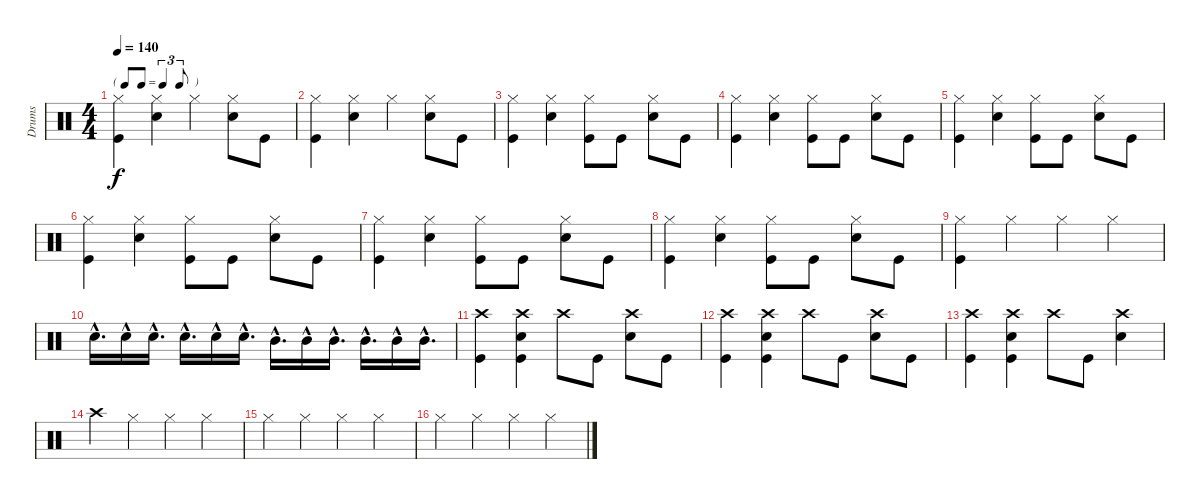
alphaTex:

\track ("Drums" "Drums") {instrument percussion}
\staff {score}
\articulation defaults
\ts (4 4)
\tf triplet8th
\tempo 140
\clef neutral
\ks c
("Kick (hit)" "Hi-Hat (closed)").4{dy f} ("Hi-Hat (closed)" "Snare (hit) 2").4 "Hi-Hat (closed)".4 ("Hi-Hat (closed)" "Snare (hit) 2").8 "Kick (hit)".8 |
("Kick (hit)" "Hi-Hat (closed)").4 ("Hi-Hat (closed)" "Snare (hit) 2").4 "Hi-Hat (closed)".4 ("Hi-Hat (closed)" "Snare (hit) 2").8 "Kick (hit)".8 |
("Hi-Hat (closed)" "Kick (hit)").4 ("Hi-Hat (closed)" "Snare (hit) 2").4 ("Kick (hit)" "Hi-Hat (closed)").8 "Kick (hit)".8 ("Hi-Hat (closed)" "Snare (hit) 2").8 "Kick (hit)".8 |
("Hi-Hat (closed)" "Kick (hit)").4 ("Hi-Hat (closed)" "Snare (hit) 2").4 ("Kick (hit)" "Hi-Hat (closed)").8 "Kick (hit)".8 ("Hi-Hat (closed)" "Snare (hit) 2").8 "Kick (hit)".8 |
("Hi-Hat (closed)" "Kick (hit)").4 ("Hi-Hat (closed)" "Snare (hit) 2").4 ("Kick (hit)" "Hi-Hat (closed)").8 "Kick (hit)".8 ("Hi-Hat (closed)" "Snare (hit) 2").8 "Kick (hit)".8 |
("Hi-Hat (closed)" "Kick (hit)").4 ("Hi-Hat (closed)" "Snare (hit) 2").4 ("Kick (hit)" "Hi-Hat (closed)").8 "Kick (hit)".8 ("Hi-Hat (closed)" "Snare (hit) 2").8 "Kick (hit)".8 |
("Hi-Hat (closed)" "Kick (hit)").4 ("Hi-Hat (closed)" "Snare (hit) 2").4 ("Kick (hit)" "Hi-Hat (closed)").8 "Kick (hit)".8 ("Hi-Hat (closed)" "Snare (hit) 2").8 "Kick (hit)".8 |
("Hi-Hat (closed)" "Kick (hit)").4 ("Hi-Hat (closed)" "Snare (hit) 2").4 ("Kick (hit)" "Hi-Hat (closed)").8 "Kick (hit)".8 ("Hi-Hat (closed)" "Snare (hit) 2").8 "Kick (hit)".8 |
("Hi-Hat (closed)" "Kick (hit)").4 "Hi-Hat (closed)".4 "Hi-Hat (closed)".4 "Hi-Hat (closed)".4 |
"Snare (hit) 2"{hac}.16{d} "Snare (hit) 2"{hac}.16 "Snare (hit) 2"{hac}.16{d} "Snare (hit) 2"{hac}.16{d} "Snare (hit) 2"{hac}.16 "Snare (hit) 2"{hac}.16{d} "Mid Tom (hit)"{hac}.16{d} "Mid Tom (hit)"{hac}.16 "Mid Tom (hit)"{hac}.16{d} "Mid Tom (hit)"{hac}.16{d} "Mid Tom (hit)"{hac}.16 "Mid Tom (hit)"{hac}.16{d} |
("Crash high (hit)" "Kick (hit)").4 ("Crash high (hit)" "Snare (hit) 2" "Kick (hit)").4 "Crash high (hit)".8 "Kick (hit)".8 ("Crash high (hit)" "Snare (hit) 2").8 "Kick (hit)".8 |
("Kick (hit)" "Crash high (hit)").4 ("Crash high (hit)" "Snare (hit) 2" "Kick (hit)").4 "Crash high (hit)".8 "Kick (hit)".8 ("Crash high (hit)" "Snare (hit) 2").8 "Kick (hit)".8 |
("Crash high (hit)" "Kick (hit)").4 ("Crash high (hit)" "Snare (hit) 2" "Kick (hit)").4 "Crash high (hit)".8 "Kick (hit)".8 ("Crash high (hit)" "Snare (hit) 2").4 |
"Crash high (hit)".4 "Hi-Hat (closed)".4 "Hi-Hat (closed)".4 "Hi-Hat (closed)".4 |
"Hi-Hat (closed)".4 "Hi-Hat (closed)".4 "Hi-Hat (closed)".4 "Hi-Hat (closed)".4 |
"Hi-Hat (closed)".4 "Hi-Hat (closed)".4 "Hi-Hat (closed)".4 "Hi-Hat (closed)".4
